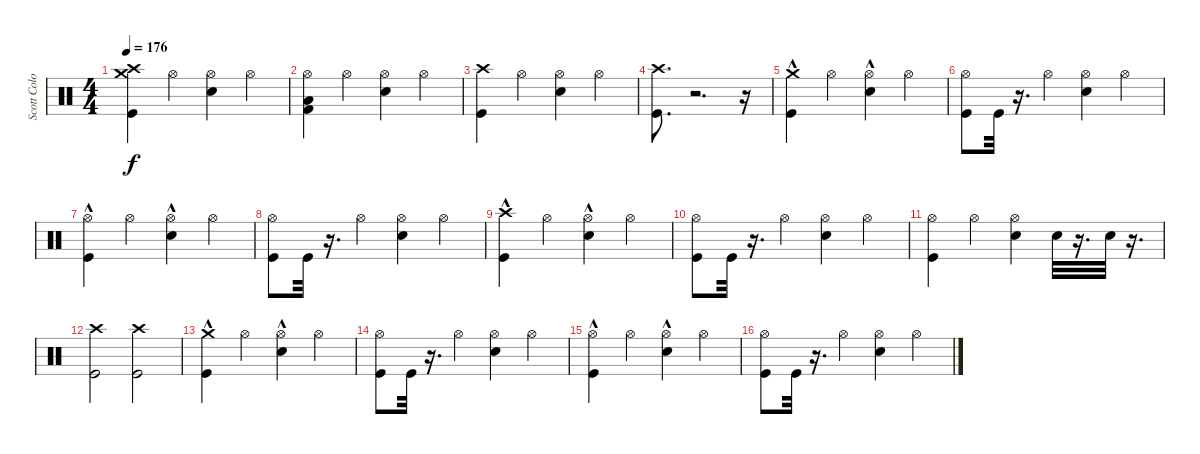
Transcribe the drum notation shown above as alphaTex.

\track ("Scott Colombus" "Scott Colo") {instrument percussion}
\staff {score}
\articulation defaults
\ts (4 4)
\tempo 176
\clef neutral
\ks c
("Crash medium (hit)" "Crash high (hit)" "Kick (hit)").4{dy f} "Hi-Hat (open)".4 ("Hi-Hat (open)" "Snare (hit) 2").4 "Hi-Hat (open)".4 |
("Low Floor Tom (hit)" "Hi-Hat (open)" "Kick (hit) 2").4 "Hi-Hat (open)".4 ("Hi-Hat (open)" "Snare (hit) 2").4 "Hi-Hat (open)".4 |
("Crash high (hit)" "Kick (hit)").4 "Hi-Hat (open)".4 ("Hi-Hat (open)" "Snare (hit) 2").4 "Hi-Hat (open)".4 |
("Crash high (hit)" "Kick (hit)").8{d} r.2{d} r.16 |
("Crash medium (hit)" "Kick (hit)"{hac}).4 "Hi-Hat (open)".4 ("Hi-Hat (open)" "Snare (hit) 2"{hac}).4 "Hi-Hat (open)".4 |
("Hi-Hat (open)" "Kick (hit)").8 "Kick (hit)".32 r.16{d} "Hi-Hat (open)".4 ("Hi-Hat (open)" "Snare (hit) 2").4 "Hi-Hat (open)".4 |
("Hi-Hat (open)" "Kick (hit)"{hac}).4 "Hi-Hat (open)".4 ("Hi-Hat (open)" "Snare (hit) 2"{hac}).4 "Hi-Hat (open)".4 |
("Hi-Hat (open)" "Kick (hit)").8 "Kick (hit)".32 r.16{d} "Hi-Hat (open)".4 ("Hi-Hat (open)" "Snare (hit) 2").4 "Hi-Hat (open)".4 |
("Kick (hit)"{hac} "Crash high (hit)").4 "Hi-Hat (open)".4 ("Hi-Hat (open)" "Snare (hit) 2"{hac}).4 "Hi-Hat (open)".4 |
("Kick (hit)" "Hi-Hat (open)").8 "Kick (hit)".32 r.16{d} "Hi-Hat (open)".4 ("Hi-Hat (open)" "Snare (hit) 2").4 "Hi-Hat (open)".4 |
("Kick (hit)" "Hi-Hat (open)").4 "Hi-Hat (open)".4 ("Hi-Hat (open)" "Snare (hit) 2").4 "Snare (hit) 2".32 r.16{d} "Snare (hit) 2".32 r.16{d} |
("Crash high (hit)" "Kick (hit)").2 ("Crash high (hit)" "Kick (hit)").2 |
("Crash medium (hit)" "Kick (hit)"{hac}).4 "Hi-Hat (open)".4 ("Hi-Hat (open)" "Snare (hit) 2"{hac}).4 "Hi-Hat (open)".4 |
("Hi-Hat (open)" "Kick (hit)").8 "Kick (hit)".32 r.16{d} "Hi-Hat (open)".4 ("Hi-Hat (open)" "Snare (hit) 2").4 "Hi-Hat (open)".4 |
("Hi-Hat (open)" "Kick (hit)"{hac}).4 "Hi-Hat (open)".4 ("Hi-Hat (open)" "Snare (hit) 2"{hac}).4 "Hi-Hat (open)".4 |
("Hi-Hat (open)" "Kick (hit)").8 "Kick (hit)".32 r.16{d} "Hi-Hat (open)".4 ("Hi-Hat (open)" "Snare (hit) 2").4 "Hi-Hat (open)".4
